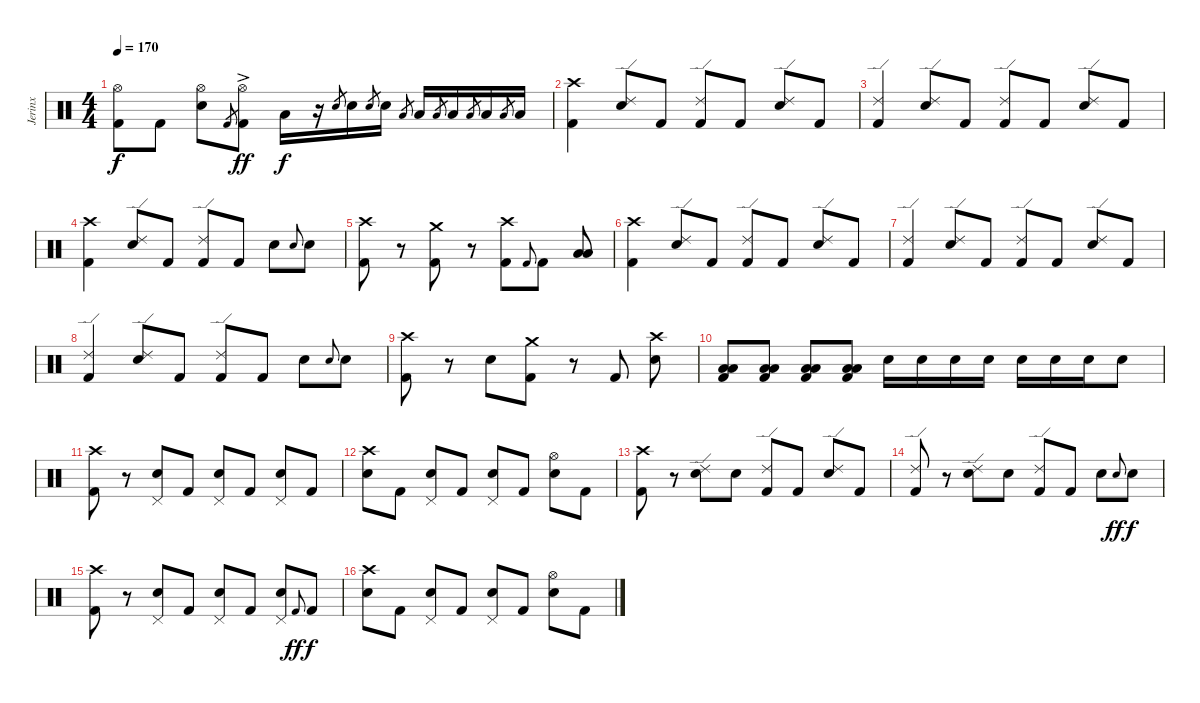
\track ("Jerinx" "Jerinx") {instrument percussion}
\staff {score}
\articulation defaults
\ts (4 4)
\tempo 170
\clef neutral
\ks c
("Kick (hit) 2" "Hi-Hat (open)").8{dy f} "Kick (hit) 2".8 ("Electric Snare (hit)" "Hi-Hat (open)").8 "Kick (hit) 2".8{gr} ("Kick (hit) 2"{ac} "Hi-Hat (open)").8{dy ff} "Low Tom (hit)".16{dy f} r.16 "Electric Snare (hit)".8{gr} "Electric Snare (hit)".16 "Electric Snare (hit)".8{gr} "Electric Snare (hit)".16 "Low Tom (hit)".8{gr} "Low Tom (hit)".16 "Low Tom (hit)".8{gr} "Low Tom (hit)".16 "Low Floor Tom (hit)".8{gr} "Low Floor Tom (hit)".16 "Low Floor Tom (hit)".8{gr} "Low Floor Tom (hit)".16 |
("Kick (hit) 2" "Crash high (hit)").4 ("Electric Snare (hit)" "Ride (edge) 2").8 "Kick (hit) 2".8 ("Kick (hit) 2" "Ride (edge) 2").8 "Kick (hit) 2".8 ("Electric Snare (hit)" "Ride (edge) 2").8 "Kick (hit) 2".8 |
("Kick (hit) 2" "Ride (edge) 2").4 ("Electric Snare (hit)" "Ride (edge) 2").8 "Kick (hit) 2".8 ("Kick (hit) 2" "Ride (edge) 2").8 "Kick (hit) 2".8 ("Electric Snare (hit)" "Ride (edge) 2").8 "Kick (hit) 2".8 |
("Kick (hit) 2" "Crash high (hit)").4 ("Electric Snare (hit)" "Ride (edge) 2").8 "Kick (hit) 2".8 ("Kick (hit) 2" "Ride (edge) 2").8 "Kick (hit) 2".8 "Electric Snare (hit)".8 "Electric Snare (hit)".8{gr onbeat} "Electric Snare (hit)".8 |
("Kick (hit) 2" "Crash high (hit)").8 r.8 ("Kick (hit) 2" "Crash medium (hit)").8 r.8 ("Kick (hit) 2" "Crash high (hit)").8 "Kick (hit) 2".8{gr onbeat} "Kick (hit) 2".8 ("Low Floor Tom (hit)" "Low Tom (hit)").8 |
("Kick (hit) 2" "Crash high (hit)").4 ("Electric Snare (hit)" "Ride (edge) 2").8 "Kick (hit) 2".8 ("Kick (hit) 2" "Ride (edge) 2").8 "Kick (hit) 2".8 ("Electric Snare (hit)" "Ride (edge) 2").8 "Kick (hit) 2".8 |
("Kick (hit) 2" "Ride (edge) 2").4 ("Electric Snare (hit)" "Ride (edge) 2").8 "Kick (hit) 2".8 ("Kick (hit) 2" "Ride (edge) 2").8 "Kick (hit) 2".8 ("Electric Snare (hit)" "Ride (edge) 2").8 "Kick (hit) 2".8 |
("Kick (hit) 2" "Ride (edge) 2").4 ("Electric Snare (hit)" "Ride (edge) 2").8 "Kick (hit) 2".8 ("Kick (hit) 2" "Ride (edge) 2").8 "Kick (hit) 2".8 "Electric Snare (hit)".8 "Electric Snare (hit)".8{gr onbeat} "Electric Snare (hit)".8 |
("Kick (hit) 2" "Crash high (hit)").8 r.8 "Electric Snare (hit)".8 ("Kick (hit) 2" "Crash medium (hit)").8 r.8 "Kick (hit) 2".8 ("Electric Snare (hit)" "Crash high (hit)").8 |
("Kick (hit) 2" "Low Floor Tom (hit)" "Low Tom (hit)").8 ("Kick (hit) 2" "Low Floor Tom (hit)" "Low Tom (hit)").8 ("Kick (hit) 2" "Low Floor Tom (hit)" "Low Tom (hit)").8 ("Kick (hit) 2" "Low Floor Tom (hit)" "Low Tom (hit)").8 "Electric Snare (hit)".16 "Electric Snare (hit)".16 "Electric Snare (hit)".16 "Electric Snare (hit)".16 "Electric Snare (hit)".16 "Electric Snare (hit)".16 "Electric Snare (hit)".16 "Electric Snare (hit)".8 |
("Kick (hit) 2" "Crash high (hit)").8 r.8 ("Electric Snare (hit)" "Pedal Hi-Hat (hit)").8 "Kick (hit) 2".8 ("Electric Snare (hit)" "Pedal Hi-Hat (hit)").8 "Kick (hit) 2".8 ("Electric Snare (hit)" "Pedal Hi-Hat (hit)").8 "Kick (hit) 2".8 |
("Electric Snare (hit)" "Crash high (hit)").8 "Kick (hit) 2".8 ("Electric Snare (hit)" "Pedal Hi-Hat (hit)").8 "Kick (hit) 2".8 ("Electric Snare (hit)" "Pedal Hi-Hat (hit)").8 "Kick (hit) 2".8 ("Electric Snare (hit)" "Hi-Hat (open)").8 "Kick (hit) 2".8 |
("Kick (hit) 2" "Crash high (hit)").8 r.8 ("Electric Snare (hit)" "Ride (edge) 2").8 "Electric Snare (hit)".8 ("Kick (hit) 2" "Ride (edge) 2").8 "Kick (hit) 2".8 ("Electric Snare (hit)" "Ride (edge) 2").8 "Kick (hit) 2".8 |
("Kick (hit) 2" "Ride (edge) 2").8 r.8 ("Electric Snare (hit)" "Ride (edge) 2").8 "Electric Snare (hit)".8 ("Kick (hit) 2" "Ride (edge) 2").8 "Kick (hit) 2".8 "Electric Snare (hit)".8 "Electric Snare (hit)".8{gr onbeat dy ff} "Electric Snare (hit)".8{dy f} |
("Kick (hit) 2" "Crash high (hit)").8 r.8 ("Electric Snare (hit)" "Pedal Hi-Hat (hit)").8 "Kick (hit) 2".8 ("Electric Snare (hit)" "Pedal Hi-Hat (hit)").8 "Kick (hit) 2".8 ("Electric Snare (hit)" "Pedal Hi-Hat (hit)").8 "Kick (hit) 2".8{gr onbeat dy ff} "Kick (hit) 2".8{dy f} |
("Electric Snare (hit)" "Crash high (hit)").8 "Kick (hit) 2".8 ("Electric Snare (hit)" "Pedal Hi-Hat (hit)").8 "Kick (hit) 2".8 ("Electric Snare (hit)" "Pedal Hi-Hat (hit)").8 "Kick (hit) 2".8 ("Electric Snare (hit)" "Hi-Hat (open)").8 "Kick (hit) 2".8
